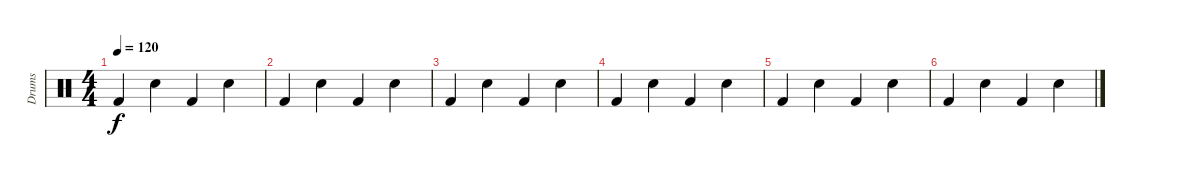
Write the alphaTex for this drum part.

\track ("Drums" "Drums") {instrument percussion}
\staff {score}
\articulation defaults
\ts (4 4)
\tempo 120
\clef neutral
\ks c "Kick (hit) 2".4{dy f} "Snare (hit) 2".4 "Kick (hit) 2".4 "Snare (hit) 2".4
|
"Kick (hit) 2".4 "Snare (hit) 2".4 "Kick (hit) 2".4 "Snare (hit) 2".4 |
"Kick (hit) 2".4 "Snare (hit) 2".4 "Kick (hit) 2".4 "Snare (hit) 2".4 |
"Kick (hit) 2".4 "Snare (hit) 2".4 "Kick (hit) 2".4 "Snare (hit) 2".4 |
"Kick (hit) 2".4 "Snare (hit) 2".4 "Kick (hit) 2".4 "Snare (hit) 2".4 |
"Kick (hit) 2".4 "Snare (hit) 2".4 "Kick (hit) 2".4 "Snare (hit) 2".4
